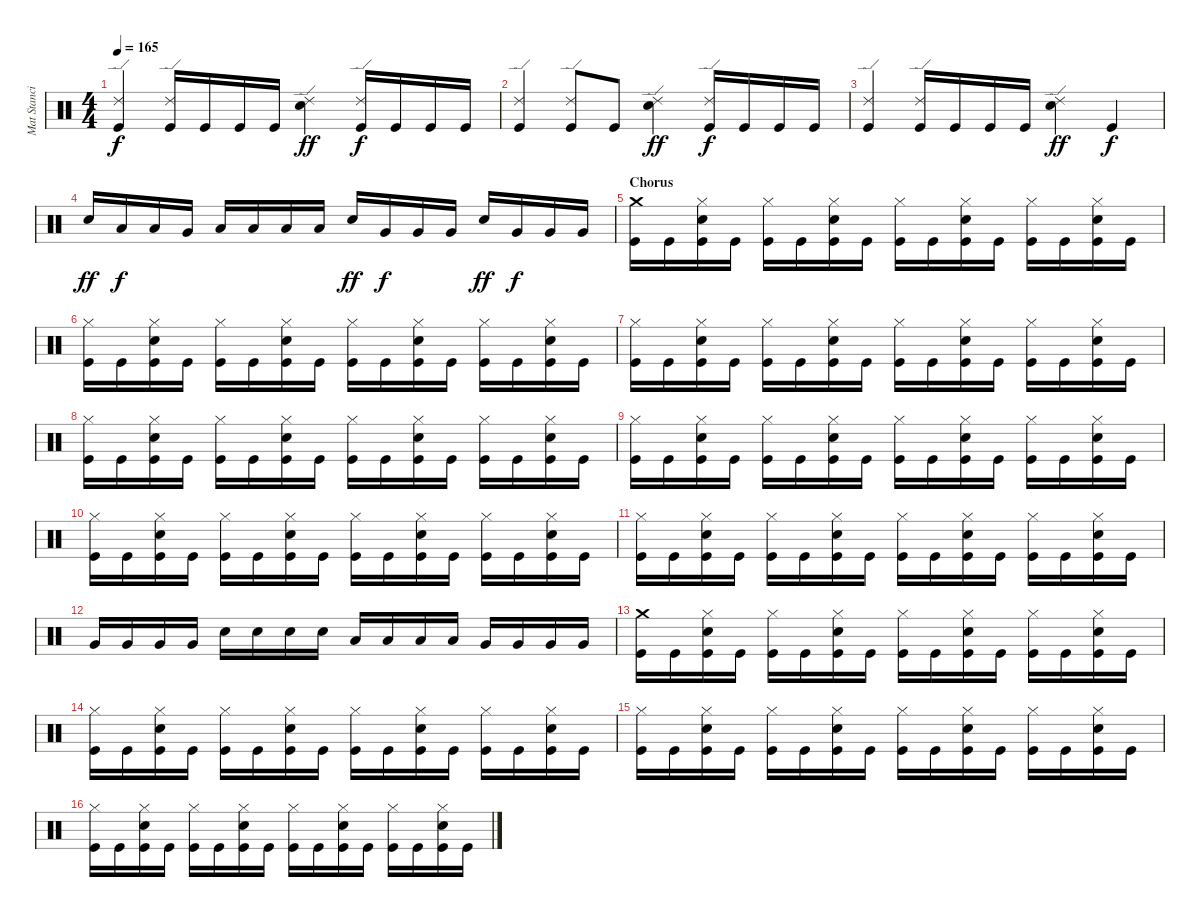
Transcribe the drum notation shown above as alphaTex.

\track ("Mat Stancioiu (Drums)" "Mat Stanci") {instrument percussion}
\staff {score}
\articulation defaults
\ts (4 4)
\tempo 165
\clef neutral
\ks c
("Ride (edge) 2" "Kick (hit)").4{dy f} ("Ride (edge) 2" "Kick (hit)").16 "Kick (hit)".16 "Kick (hit)".16 "Kick (hit)".16 ("Ride (edge) 2" "Electric Snare (hit)").4{dy ff} ("Ride (edge) 2" "Kick (hit)").16{dy f} "Kick (hit)".16 "Kick (hit)".16 "Kick (hit)".16 |
("Ride (edge) 2" "Kick (hit)").4 ("Ride (edge) 2" "Kick (hit)").8 "Kick (hit)".8 ("Ride (edge) 2" "Electric Snare (hit)").4{dy ff} ("Ride (edge) 2" "Kick (hit)").16{dy f} "Kick (hit)".16 "Kick (hit)".16 "Kick (hit)".16 |
("Ride (edge) 2" "Kick (hit)").4 ("Ride (edge) 2" "Kick (hit)").16 "Kick (hit)".16 "Kick (hit)".16 "Kick (hit)".16 ("Ride (edge) 2" "Electric Snare (hit)").4{dy ff} "Kick (hit)".4{dy f} |
"Electric Snare (hit)".16{dy ff} "Low Tom (hit)".16{dy f} "Low Tom (hit)".16 "Very Low Tom (hit)".16 "Low Floor Tom (hit)".16 "Low Floor Tom (hit)".16 "Low Floor Tom (hit)".16 "Low Floor Tom (hit)".16 "Electric Snare (hit)".16{dy ff} "Very Low Tom (hit)".16{dy f} "Very Low Tom (hit)".16 "Very Low Tom (hit)".16 "Electric Snare (hit)".16{dy ff} "Very Low Tom (hit)".16{dy f} "Very Low Tom (hit)".16 "Very Low Tom (hit)".16 |
\section ("" "Chorus")
("Crash medium (hit)" "Kick (hit)").16 "Kick (hit)".16 ("Hi-Hat (closed)" "Electric Snare (hit)" "Kick (hit)").16 "Kick (hit)".16 ("Hi-Hat (closed)" "Kick (hit)").16 "Kick (hit)".16 ("Hi-Hat (closed)" "Electric Snare (hit)" "Kick (hit)").16 "Kick (hit)".16 ("Hi-Hat (closed)" "Kick (hit)").16 "Kick (hit)".16 ("Hi-Hat (closed)" "Electric Snare (hit)" "Kick (hit)").16 "Kick (hit)".16 ("Hi-Hat (closed)" "Kick (hit)").16 "Kick (hit)".16 ("Hi-Hat (closed)" "Electric Snare (hit)" "Kick (hit)").16 "Kick (hit)".16 |
("Hi-Hat (closed)" "Kick (hit)").16 "Kick (hit)".16 ("Hi-Hat (closed)" "Electric Snare (hit)" "Kick (hit)").16 "Kick (hit)".16 ("Hi-Hat (closed)" "Kick (hit)").16 "Kick (hit)".16 ("Hi-Hat (closed)" "Electric Snare (hit)" "Kick (hit)").16 "Kick (hit)".16 ("Hi-Hat (closed)" "Kick (hit)").16 "Kick (hit)".16 ("Hi-Hat (closed)" "Electric Snare (hit)" "Kick (hit)").16 "Kick (hit)".16 ("Hi-Hat (closed)" "Kick (hit)").16 "Kick (hit)".16 ("Hi-Hat (closed)" "Electric Snare (hit)" "Kick (hit)").16 "Kick (hit)".16 |
("Hi-Hat (closed)" "Kick (hit)").16 "Kick (hit)".16 ("Hi-Hat (closed)" "Electric Snare (hit)" "Kick (hit)").16 "Kick (hit)".16 ("Hi-Hat (closed)" "Kick (hit)").16 "Kick (hit)".16 ("Hi-Hat (closed)" "Electric Snare (hit)" "Kick (hit)").16 "Kick (hit)".16 ("Hi-Hat (closed)" "Kick (hit)").16 "Kick (hit)".16 ("Hi-Hat (closed)" "Electric Snare (hit)" "Kick (hit)").16 "Kick (hit)".16 ("Hi-Hat (closed)" "Kick (hit)").16 "Kick (hit)".16 ("Hi-Hat (closed)" "Electric Snare (hit)" "Kick (hit)").16 "Kick (hit)".16 |
("Hi-Hat (closed)" "Kick (hit)").16 "Kick (hit)".16 ("Hi-Hat (closed)" "Electric Snare (hit)" "Kick (hit)").16 "Kick (hit)".16 ("Hi-Hat (closed)" "Kick (hit)").16 "Kick (hit)".16 ("Hi-Hat (closed)" "Electric Snare (hit)" "Kick (hit)").16 "Kick (hit)".16 ("Hi-Hat (closed)" "Kick (hit)").16 "Kick (hit)".16 ("Hi-Hat (closed)" "Electric Snare (hit)" "Kick (hit)").16 "Kick (hit)".16 ("Hi-Hat (closed)" "Kick (hit)").16 "Kick (hit)".16 ("Hi-Hat (closed)" "Electric Snare (hit)" "Kick (hit)").16 "Kick (hit)".16 |
("Hi-Hat (closed)" "Kick (hit)").16 "Kick (hit)".16 ("Hi-Hat (closed)" "Electric Snare (hit)" "Kick (hit)").16 "Kick (hit)".16 ("Hi-Hat (closed)" "Kick (hit)").16 "Kick (hit)".16 ("Hi-Hat (closed)" "Electric Snare (hit)" "Kick (hit)").16 "Kick (hit)".16 ("Hi-Hat (closed)" "Kick (hit)").16 "Kick (hit)".16 ("Hi-Hat (closed)" "Electric Snare (hit)" "Kick (hit)").16 "Kick (hit)".16 ("Hi-Hat (closed)" "Kick (hit)").16 "Kick (hit)".16 ("Hi-Hat (closed)" "Electric Snare (hit)" "Kick (hit)").16 "Kick (hit)".16 |
("Hi-Hat (closed)" "Kick (hit)").16 "Kick (hit)".16 ("Hi-Hat (closed)" "Electric Snare (hit)" "Kick (hit)").16 "Kick (hit)".16 ("Hi-Hat (closed)" "Kick (hit)").16 "Kick (hit)".16 ("Hi-Hat (closed)" "Electric Snare (hit)" "Kick (hit)").16 "Kick (hit)".16 ("Hi-Hat (closed)" "Kick (hit)").16 "Kick (hit)".16 ("Hi-Hat (closed)" "Electric Snare (hit)" "Kick (hit)").16 "Kick (hit)".16 ("Hi-Hat (closed)" "Kick (hit)").16 "Kick (hit)".16 ("Hi-Hat (closed)" "Electric Snare (hit)" "Kick (hit)").16 "Kick (hit)".16 |
("Hi-Hat (closed)" "Kick (hit)").16 "Kick (hit)".16 ("Hi-Hat (closed)" "Electric Snare (hit)" "Kick (hit)").16 "Kick (hit)".16 ("Hi-Hat (closed)" "Kick (hit)").16 "Kick (hit)".16 ("Hi-Hat (closed)" "Electric Snare (hit)" "Kick (hit)").16 "Kick (hit)".16 ("Hi-Hat (closed)" "Kick (hit)").16 "Kick (hit)".16 ("Hi-Hat (closed)" "Electric Snare (hit)" "Kick (hit)").16 "Kick (hit)".16 ("Hi-Hat (closed)" "Kick (hit)").16 "Kick (hit)".16 ("Hi-Hat (closed)" "Electric Snare (hit)" "Kick (hit)").16 "Kick (hit)".16 |
"Very Low Tom (hit)".16 "Very Low Tom (hit)".16 "Very Low Tom (hit)".16 "Very Low Tom (hit)".16 "Electric Snare (hit)".16 "Electric Snare (hit)".16 "Electric Snare (hit)".16 "Electric Snare (hit)".16 "Low Tom (hit)".16 "Low Tom (hit)".16 "Low Tom (hit)".16 "Low Tom (hit)".16 "Very Low Tom (hit)".16 "Very Low Tom (hit)".16 "Very Low Tom (hit)".16 "Very Low Tom (hit)".16 |
("Crash medium (hit)" "Kick (hit)").16 "Kick (hit)".16 ("Hi-Hat (closed)" "Electric Snare (hit)" "Kick (hit)").16 "Kick (hit)".16 ("Hi-Hat (closed)" "Kick (hit)").16 "Kick (hit)".16 ("Hi-Hat (closed)" "Electric Snare (hit)" "Kick (hit)").16 "Kick (hit)".16 ("Hi-Hat (closed)" "Kick (hit)").16 "Kick (hit)".16 ("Hi-Hat (closed)" "Electric Snare (hit)" "Kick (hit)").16 "Kick (hit)".16 ("Hi-Hat (closed)" "Kick (hit)").16 "Kick (hit)".16 ("Hi-Hat (closed)" "Electric Snare (hit)" "Kick (hit)").16 "Kick (hit)".16 |
("Hi-Hat (closed)" "Kick (hit)").16 "Kick (hit)".16 ("Hi-Hat (closed)" "Electric Snare (hit)" "Kick (hit)").16 "Kick (hit)".16 ("Hi-Hat (closed)" "Kick (hit)").16 "Kick (hit)".16 ("Hi-Hat (closed)" "Electric Snare (hit)" "Kick (hit)").16 "Kick (hit)".16 ("Hi-Hat (closed)" "Kick (hit)").16 "Kick (hit)".16 ("Hi-Hat (closed)" "Electric Snare (hit)" "Kick (hit)").16 "Kick (hit)".16 ("Hi-Hat (closed)" "Kick (hit)").16 "Kick (hit)".16 ("Hi-Hat (closed)" "Electric Snare (hit)" "Kick (hit)").16 "Kick (hit)".16 |
("Hi-Hat (closed)" "Kick (hit)").16 "Kick (hit)".16 ("Hi-Hat (closed)" "Electric Snare (hit)" "Kick (hit)").16 "Kick (hit)".16 ("Hi-Hat (closed)" "Kick (hit)").16 "Kick (hit)".16 ("Hi-Hat (closed)" "Electric Snare (hit)" "Kick (hit)").16 "Kick (hit)".16 ("Hi-Hat (closed)" "Kick (hit)").16 "Kick (hit)".16 ("Hi-Hat (closed)" "Electric Snare (hit)" "Kick (hit)").16 "Kick (hit)".16 ("Hi-Hat (closed)" "Kick (hit)").16 "Kick (hit)".16 ("Hi-Hat (closed)" "Electric Snare (hit)" "Kick (hit)").16 "Kick (hit)".16 |
("Hi-Hat (closed)" "Kick (hit)").16 "Kick (hit)".16 ("Hi-Hat (closed)" "Electric Snare (hit)" "Kick (hit)").16 "Kick (hit)".16 ("Hi-Hat (closed)" "Kick (hit)").16 "Kick (hit)".16 ("Hi-Hat (closed)" "Electric Snare (hit)" "Kick (hit)").16 "Kick (hit)".16 ("Hi-Hat (closed)" "Kick (hit)").16 "Kick (hit)".16 ("Hi-Hat (closed)" "Electric Snare (hit)" "Kick (hit)").16 "Kick (hit)".16 ("Hi-Hat (closed)" "Kick (hit)").16 "Kick (hit)".16 ("Hi-Hat (closed)" "Electric Snare (hit)" "Kick (hit)").16 "Kick (hit)".16
